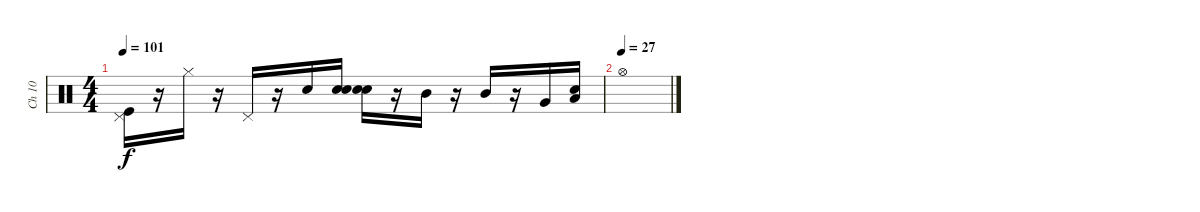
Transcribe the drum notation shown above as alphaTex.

\track ("Ch 10   " "Ch 10   ") {instrument percussion}
\staff {score}
\articulation defaults
\ts (4 4)
\tempo 101
\clef neutral
\ks c
("Kick (hit)" "Pedal Hi-Hat (hit)").16{dy f} r.16 "Hi-Hat (closed)".16 r.16 "Pedal Hi-Hat (hit)".16 r.16 "Snare (hit) 2".16 ("Snare (hit)" "Snare (hit) 2").16 ("Snare (hit)" "Snare (hit) 2").16 r.16 "Mid Tom (hit)".16 r.16 "Mid Tom (hit)".16 r.16 "Very Low Tom (hit)".16 ("Snare (hit)" "Low Floor Tom (hit)").16 |
\tempo (27)
"Hi-Hat (open)".1
